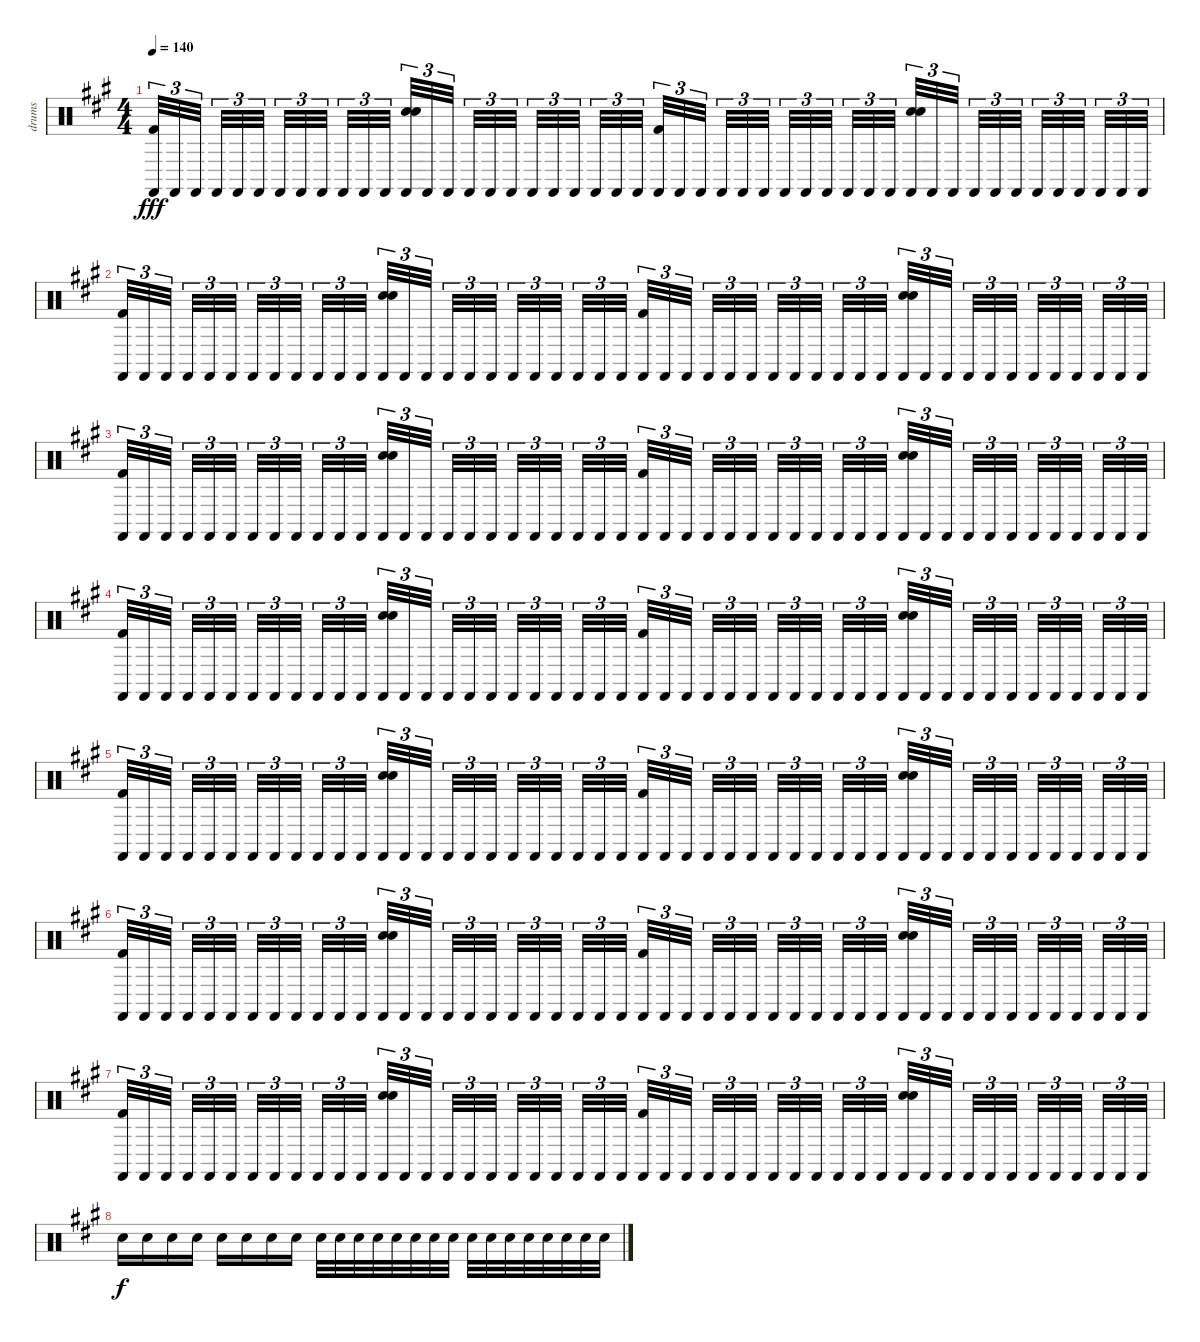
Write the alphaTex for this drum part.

\track ("drums" "drums") {instrument percussion}
\staff {score}
\articulation defaults
\ts (4 4)
\tempo 140
\clef neutral
\ks f#minor
("Castanets (hit)" "Kick (hit) 2").32{tu (3 2) dy fff} "Castanets (hit)".32{tu (3 2)} "Castanets (hit)".32{tu (3 2) beam splitsecondary} "Castanets (hit)".32{tu (3 2)} "Castanets (hit)".32{tu (3 2)} "Castanets (hit)".32{tu (3 2) beam splitsecondary} "Castanets (hit)".32{tu (3 2)} "Castanets (hit)".32{tu (3 2)} "Castanets (hit)".32{tu (3 2) beam splitsecondary} "Castanets (hit)".32{tu (3 2)} "Castanets (hit)".32{tu (3 2)} "Castanets (hit)".32{tu (3 2)} ("Castanets (hit)" "Hand Clap (hit)" "Electric Snare (hit)").32{tu (3 2)} "Castanets (hit)".32{tu (3 2)} "Castanets (hit)".32{tu (3 2) beam splitsecondary} "Castanets (hit)".32{tu (3 2)} "Castanets (hit)".32{tu (3 2)} "Castanets (hit)".32{tu (3 2) beam splitsecondary} "Castanets (hit)".32{tu (3 2)} "Castanets (hit)".32{tu (3 2)} "Castanets (hit)".32{tu (3 2) beam splitsecondary} "Castanets (hit)".32{tu (3 2)} "Castanets (hit)".32{tu (3 2)} "Castanets (hit)".32{tu (3 2)} ("Castanets (hit)" "Kick (hit) 2").32{tu (3 2)} "Castanets (hit)".32{tu (3 2)} "Castanets (hit)".32{tu (3 2) beam splitsecondary} "Castanets (hit)".32{tu (3 2)} "Castanets (hit)".32{tu (3 2)} "Castanets (hit)".32{tu (3 2) beam splitsecondary} "Castanets (hit)".32{tu (3 2)} "Castanets (hit)".32{tu (3 2)} "Castanets (hit)".32{tu (3 2) beam splitsecondary} "Castanets (hit)".32{tu (3 2)} "Castanets (hit)".32{tu (3 2)} "Castanets (hit)".32{tu (3 2)} ("Castanets (hit)" "Hand Clap (hit)" "Electric Snare (hit)").32{tu (3 2)} "Castanets (hit)".32{tu (3 2)} "Castanets (hit)".32{tu (3 2) beam splitsecondary} "Castanets (hit)".32{tu (3 2)} "Castanets (hit)".32{tu (3 2)} "Castanets (hit)".32{tu (3 2) beam splitsecondary} "Castanets (hit)".32{tu (3 2)} "Castanets (hit)".32{tu (3 2)} "Castanets (hit)".32{tu (3 2) beam splitsecondary} "Castanets (hit)".32{tu (3 2)} "Castanets (hit)".32{tu (3 2)} "Castanets (hit)".32{tu (3 2)} |
("Castanets (hit)" "Kick (hit) 2").32{tu (3 2)} "Castanets (hit)".32{tu (3 2)} "Castanets (hit)".32{tu (3 2) beam splitsecondary} "Castanets (hit)".32{tu (3 2)} "Castanets (hit)".32{tu (3 2)} "Castanets (hit)".32{tu (3 2) beam splitsecondary} "Castanets (hit)".32{tu (3 2)} "Castanets (hit)".32{tu (3 2)} "Castanets (hit)".32{tu (3 2) beam splitsecondary} "Castanets (hit)".32{tu (3 2)} "Castanets (hit)".32{tu (3 2)} "Castanets (hit)".32{tu (3 2)} ("Castanets (hit)" "Hand Clap (hit)" "Electric Snare (hit)").32{tu (3 2)} "Castanets (hit)".32{tu (3 2)} "Castanets (hit)".32{tu (3 2) beam splitsecondary} "Castanets (hit)".32{tu (3 2)} "Castanets (hit)".32{tu (3 2)} "Castanets (hit)".32{tu (3 2) beam splitsecondary} "Castanets (hit)".32{tu (3 2)} "Castanets (hit)".32{tu (3 2)} "Castanets (hit)".32{tu (3 2) beam splitsecondary} "Castanets (hit)".32{tu (3 2)} "Castanets (hit)".32{tu (3 2)} "Castanets (hit)".32{tu (3 2)} ("Castanets (hit)" "Kick (hit) 2").32{tu (3 2)} "Castanets (hit)".32{tu (3 2)} "Castanets (hit)".32{tu (3 2) beam splitsecondary} "Castanets (hit)".32{tu (3 2)} "Castanets (hit)".32{tu (3 2)} "Castanets (hit)".32{tu (3 2) beam splitsecondary} "Castanets (hit)".32{tu (3 2)} "Castanets (hit)".32{tu (3 2)} "Castanets (hit)".32{tu (3 2) beam splitsecondary} "Castanets (hit)".32{tu (3 2)} "Castanets (hit)".32{tu (3 2)} "Castanets (hit)".32{tu (3 2)} ("Castanets (hit)" "Hand Clap (hit)" "Electric Snare (hit)").32{tu (3 2)} "Castanets (hit)".32{tu (3 2)} "Castanets (hit)".32{tu (3 2) beam splitsecondary} "Castanets (hit)".32{tu (3 2)} "Castanets (hit)".32{tu (3 2)} "Castanets (hit)".32{tu (3 2) beam splitsecondary} "Castanets (hit)".32{tu (3 2)} "Castanets (hit)".32{tu (3 2)} "Castanets (hit)".32{tu (3 2) beam splitsecondary} "Castanets (hit)".32{tu (3 2)} "Castanets (hit)".32{tu (3 2)} "Castanets (hit)".32{tu (3 2)} |
("Castanets (hit)" "Kick (hit) 2").32{tu (3 2)} "Castanets (hit)".32{tu (3 2)} "Castanets (hit)".32{tu (3 2) beam splitsecondary} "Castanets (hit)".32{tu (3 2)} "Castanets (hit)".32{tu (3 2)} "Castanets (hit)".32{tu (3 2) beam splitsecondary} "Castanets (hit)".32{tu (3 2)} "Castanets (hit)".32{tu (3 2)} "Castanets (hit)".32{tu (3 2) beam splitsecondary} "Castanets (hit)".32{tu (3 2)} "Castanets (hit)".32{tu (3 2)} "Castanets (hit)".32{tu (3 2)} ("Castanets (hit)" "Hand Clap (hit)" "Electric Snare (hit)").32{tu (3 2)} "Castanets (hit)".32{tu (3 2)} "Castanets (hit)".32{tu (3 2) beam splitsecondary} "Castanets (hit)".32{tu (3 2)} "Castanets (hit)".32{tu (3 2)} "Castanets (hit)".32{tu (3 2) beam splitsecondary} "Castanets (hit)".32{tu (3 2)} "Castanets (hit)".32{tu (3 2)} "Castanets (hit)".32{tu (3 2) beam splitsecondary} "Castanets (hit)".32{tu (3 2)} "Castanets (hit)".32{tu (3 2)} "Castanets (hit)".32{tu (3 2)} ("Castanets (hit)" "Kick (hit) 2").32{tu (3 2)} "Castanets (hit)".32{tu (3 2)} "Castanets (hit)".32{tu (3 2) beam splitsecondary} "Castanets (hit)".32{tu (3 2)} "Castanets (hit)".32{tu (3 2)} "Castanets (hit)".32{tu (3 2) beam splitsecondary} "Castanets (hit)".32{tu (3 2)} "Castanets (hit)".32{tu (3 2)} "Castanets (hit)".32{tu (3 2) beam splitsecondary} "Castanets (hit)".32{tu (3 2)} "Castanets (hit)".32{tu (3 2)} "Castanets (hit)".32{tu (3 2)} ("Castanets (hit)" "Hand Clap (hit)" "Electric Snare (hit)").32{tu (3 2)} "Castanets (hit)".32{tu (3 2)} "Castanets (hit)".32{tu (3 2) beam splitsecondary} "Castanets (hit)".32{tu (3 2)} "Castanets (hit)".32{tu (3 2)} "Castanets (hit)".32{tu (3 2) beam splitsecondary} "Castanets (hit)".32{tu (3 2)} "Castanets (hit)".32{tu (3 2)} "Castanets (hit)".32{tu (3 2) beam splitsecondary} "Castanets (hit)".32{tu (3 2)} "Castanets (hit)".32{tu (3 2)} "Castanets (hit)".32{tu (3 2)} |
("Castanets (hit)" "Kick (hit) 2").32{tu (3 2)} "Castanets (hit)".32{tu (3 2)} "Castanets (hit)".32{tu (3 2) beam splitsecondary} "Castanets (hit)".32{tu (3 2)} "Castanets (hit)".32{tu (3 2)} "Castanets (hit)".32{tu (3 2) beam splitsecondary} "Castanets (hit)".32{tu (3 2)} "Castanets (hit)".32{tu (3 2)} "Castanets (hit)".32{tu (3 2) beam splitsecondary} "Castanets (hit)".32{tu (3 2)} "Castanets (hit)".32{tu (3 2)} "Castanets (hit)".32{tu (3 2)} ("Castanets (hit)" "Hand Clap (hit)" "Electric Snare (hit)").32{tu (3 2)} "Castanets (hit)".32{tu (3 2)} "Castanets (hit)".32{tu (3 2) beam splitsecondary} "Castanets (hit)".32{tu (3 2)} "Castanets (hit)".32{tu (3 2)} "Castanets (hit)".32{tu (3 2) beam splitsecondary} "Castanets (hit)".32{tu (3 2)} "Castanets (hit)".32{tu (3 2)} "Castanets (hit)".32{tu (3 2) beam splitsecondary} "Castanets (hit)".32{tu (3 2)} "Castanets (hit)".32{tu (3 2)} "Castanets (hit)".32{tu (3 2)} ("Castanets (hit)" "Kick (hit) 2").32{tu (3 2)} "Castanets (hit)".32{tu (3 2)} "Castanets (hit)".32{tu (3 2) beam splitsecondary} "Castanets (hit)".32{tu (3 2)} "Castanets (hit)".32{tu (3 2)} "Castanets (hit)".32{tu (3 2) beam splitsecondary} "Castanets (hit)".32{tu (3 2)} "Castanets (hit)".32{tu (3 2)} "Castanets (hit)".32{tu (3 2) beam splitsecondary} "Castanets (hit)".32{tu (3 2)} "Castanets (hit)".32{tu (3 2)} "Castanets (hit)".32{tu (3 2)} ("Castanets (hit)" "Hand Clap (hit)" "Electric Snare (hit)").32{tu (3 2)} "Castanets (hit)".32{tu (3 2)} "Castanets (hit)".32{tu (3 2) beam splitsecondary} "Castanets (hit)".32{tu (3 2)} "Castanets (hit)".32{tu (3 2)} "Castanets (hit)".32{tu (3 2) beam splitsecondary} "Castanets (hit)".32{tu (3 2)} "Castanets (hit)".32{tu (3 2)} "Castanets (hit)".32{tu (3 2) beam splitsecondary} "Castanets (hit)".32{tu (3 2)} "Castanets (hit)".32{tu (3 2)} "Castanets (hit)".32{tu (3 2)} |
("Castanets (hit)" "Kick (hit) 2").32{tu (3 2)} "Castanets (hit)".32{tu (3 2)} "Castanets (hit)".32{tu (3 2) beam splitsecondary} "Castanets (hit)".32{tu (3 2)} "Castanets (hit)".32{tu (3 2)} "Castanets (hit)".32{tu (3 2) beam splitsecondary} "Castanets (hit)".32{tu (3 2)} "Castanets (hit)".32{tu (3 2)} "Castanets (hit)".32{tu (3 2) beam splitsecondary} "Castanets (hit)".32{tu (3 2)} "Castanets (hit)".32{tu (3 2)} "Castanets (hit)".32{tu (3 2)} ("Castanets (hit)" "Hand Clap (hit)" "Electric Snare (hit)").32{tu (3 2)} "Castanets (hit)".32{tu (3 2)} "Castanets (hit)".32{tu (3 2) beam splitsecondary} "Castanets (hit)".32{tu (3 2)} "Castanets (hit)".32{tu (3 2)} "Castanets (hit)".32{tu (3 2) beam splitsecondary} "Castanets (hit)".32{tu (3 2)} "Castanets (hit)".32{tu (3 2)} "Castanets (hit)".32{tu (3 2) beam splitsecondary} "Castanets (hit)".32{tu (3 2)} "Castanets (hit)".32{tu (3 2)} "Castanets (hit)".32{tu (3 2)} ("Castanets (hit)" "Kick (hit) 2").32{tu (3 2)} "Castanets (hit)".32{tu (3 2)} "Castanets (hit)".32{tu (3 2) beam splitsecondary} "Castanets (hit)".32{tu (3 2)} "Castanets (hit)".32{tu (3 2)} "Castanets (hit)".32{tu (3 2) beam splitsecondary} "Castanets (hit)".32{tu (3 2)} "Castanets (hit)".32{tu (3 2)} "Castanets (hit)".32{tu (3 2) beam splitsecondary} "Castanets (hit)".32{tu (3 2)} "Castanets (hit)".32{tu (3 2)} "Castanets (hit)".32{tu (3 2)} ("Castanets (hit)" "Hand Clap (hit)" "Electric Snare (hit)").32{tu (3 2)} "Castanets (hit)".32{tu (3 2)} "Castanets (hit)".32{tu (3 2) beam splitsecondary} "Castanets (hit)".32{tu (3 2)} "Castanets (hit)".32{tu (3 2)} "Castanets (hit)".32{tu (3 2) beam splitsecondary} "Castanets (hit)".32{tu (3 2)} "Castanets (hit)".32{tu (3 2)} "Castanets (hit)".32{tu (3 2) beam splitsecondary} "Castanets (hit)".32{tu (3 2)} "Castanets (hit)".32{tu (3 2)} "Castanets (hit)".32{tu (3 2)} |
("Castanets (hit)" "Kick (hit) 2").32{tu (3 2)} "Castanets (hit)".32{tu (3 2)} "Castanets (hit)".32{tu (3 2) beam splitsecondary} "Castanets (hit)".32{tu (3 2)} "Castanets (hit)".32{tu (3 2)} "Castanets (hit)".32{tu (3 2) beam splitsecondary} "Castanets (hit)".32{tu (3 2)} "Castanets (hit)".32{tu (3 2)} "Castanets (hit)".32{tu (3 2) beam splitsecondary} "Castanets (hit)".32{tu (3 2)} "Castanets (hit)".32{tu (3 2)} "Castanets (hit)".32{tu (3 2)} ("Castanets (hit)" "Hand Clap (hit)" "Electric Snare (hit)").32{tu (3 2)} "Castanets (hit)".32{tu (3 2)} "Castanets (hit)".32{tu (3 2) beam splitsecondary} "Castanets (hit)".32{tu (3 2)} "Castanets (hit)".32{tu (3 2)} "Castanets (hit)".32{tu (3 2) beam splitsecondary} "Castanets (hit)".32{tu (3 2)} "Castanets (hit)".32{tu (3 2)} "Castanets (hit)".32{tu (3 2) beam splitsecondary} "Castanets (hit)".32{tu (3 2)} "Castanets (hit)".32{tu (3 2)} "Castanets (hit)".32{tu (3 2)} ("Castanets (hit)" "Kick (hit) 2").32{tu (3 2)} "Castanets (hit)".32{tu (3 2)} "Castanets (hit)".32{tu (3 2) beam splitsecondary} "Castanets (hit)".32{tu (3 2)} "Castanets (hit)".32{tu (3 2)} "Castanets (hit)".32{tu (3 2) beam splitsecondary} "Castanets (hit)".32{tu (3 2)} "Castanets (hit)".32{tu (3 2)} "Castanets (hit)".32{tu (3 2) beam splitsecondary} "Castanets (hit)".32{tu (3 2)} "Castanets (hit)".32{tu (3 2)} "Castanets (hit)".32{tu (3 2)} ("Castanets (hit)" "Hand Clap (hit)" "Electric Snare (hit)").32{tu (3 2)} "Castanets (hit)".32{tu (3 2)} "Castanets (hit)".32{tu (3 2) beam splitsecondary} "Castanets (hit)".32{tu (3 2)} "Castanets (hit)".32{tu (3 2)} "Castanets (hit)".32{tu (3 2) beam splitsecondary} "Castanets (hit)".32{tu (3 2)} "Castanets (hit)".32{tu (3 2)} "Castanets (hit)".32{tu (3 2) beam splitsecondary} "Castanets (hit)".32{tu (3 2)} "Castanets (hit)".32{tu (3 2)} "Castanets (hit)".32{tu (3 2)} |
("Castanets (hit)" "Kick (hit) 2").32{tu (3 2)} "Castanets (hit)".32{tu (3 2)} "Castanets (hit)".32{tu (3 2) beam splitsecondary} "Castanets (hit)".32{tu (3 2)} "Castanets (hit)".32{tu (3 2)} "Castanets (hit)".32{tu (3 2) beam splitsecondary} "Castanets (hit)".32{tu (3 2)} "Castanets (hit)".32{tu (3 2)} "Castanets (hit)".32{tu (3 2) beam splitsecondary} "Castanets (hit)".32{tu (3 2)} "Castanets (hit)".32{tu (3 2)} "Castanets (hit)".32{tu (3 2)} ("Castanets (hit)" "Hand Clap (hit)" "Electric Snare (hit)").32{tu (3 2)} "Castanets (hit)".32{tu (3 2)} "Castanets (hit)".32{tu (3 2) beam splitsecondary} "Castanets (hit)".32{tu (3 2)} "Castanets (hit)".32{tu (3 2)} "Castanets (hit)".32{tu (3 2) beam splitsecondary} "Castanets (hit)".32{tu (3 2)} "Castanets (hit)".32{tu (3 2)} "Castanets (hit)".32{tu (3 2) beam splitsecondary} "Castanets (hit)".32{tu (3 2)} "Castanets (hit)".32{tu (3 2)} "Castanets (hit)".32{tu (3 2)} ("Castanets (hit)" "Kick (hit) 2").32{tu (3 2)} "Castanets (hit)".32{tu (3 2)} "Castanets (hit)".32{tu (3 2) beam splitsecondary} "Castanets (hit)".32{tu (3 2)} "Castanets (hit)".32{tu (3 2)} "Castanets (hit)".32{tu (3 2) beam splitsecondary} "Castanets (hit)".32{tu (3 2)} "Castanets (hit)".32{tu (3 2)} "Castanets (hit)".32{tu (3 2) beam splitsecondary} "Castanets (hit)".32{tu (3 2)} "Castanets (hit)".32{tu (3 2)} "Castanets (hit)".32{tu (3 2)} ("Castanets (hit)" "Hand Clap (hit)" "Electric Snare (hit)").32{tu (3 2)} "Castanets (hit)".32{tu (3 2)} "Castanets (hit)".32{tu (3 2) beam splitsecondary} "Castanets (hit)".32{tu (3 2)} "Castanets (hit)".32{tu (3 2)} "Castanets (hit)".32{tu (3 2) beam splitsecondary} "Castanets (hit)".32{tu (3 2)} "Castanets (hit)".32{tu (3 2)} "Castanets (hit)".32{tu (3 2) beam splitsecondary} "Castanets (hit)".32{tu (3 2)} "Castanets (hit)".32{tu (3 2)} "Castanets (hit)".32{tu (3 2)} |
"Electric Snare (hit)".16{dy f} "Electric Snare (hit)".16 "Electric Snare (hit)".16 "Electric Snare (hit)".16 "Electric Snare (hit)".16 "Electric Snare (hit)".16 "Electric Snare (hit)".16 "Electric Snare (hit)".16 "Electric Snare (hit)".32 "Electric Snare (hit)".32 "Electric Snare (hit)".32 "Electric Snare (hit)".32 "Electric Snare (hit)".32 "Electric Snare (hit)".32 "Electric Snare (hit)".32 "Electric Snare (hit)".32 "Electric Snare (hit)".32 "Electric Snare (hit)".32 "Electric Snare (hit)".32 "Electric Snare (hit)".32 "Electric Snare (hit)".32 "Electric Snare (hit)".32 "Electric Snare (hit)".32 "Electric Snare (hit)".32
